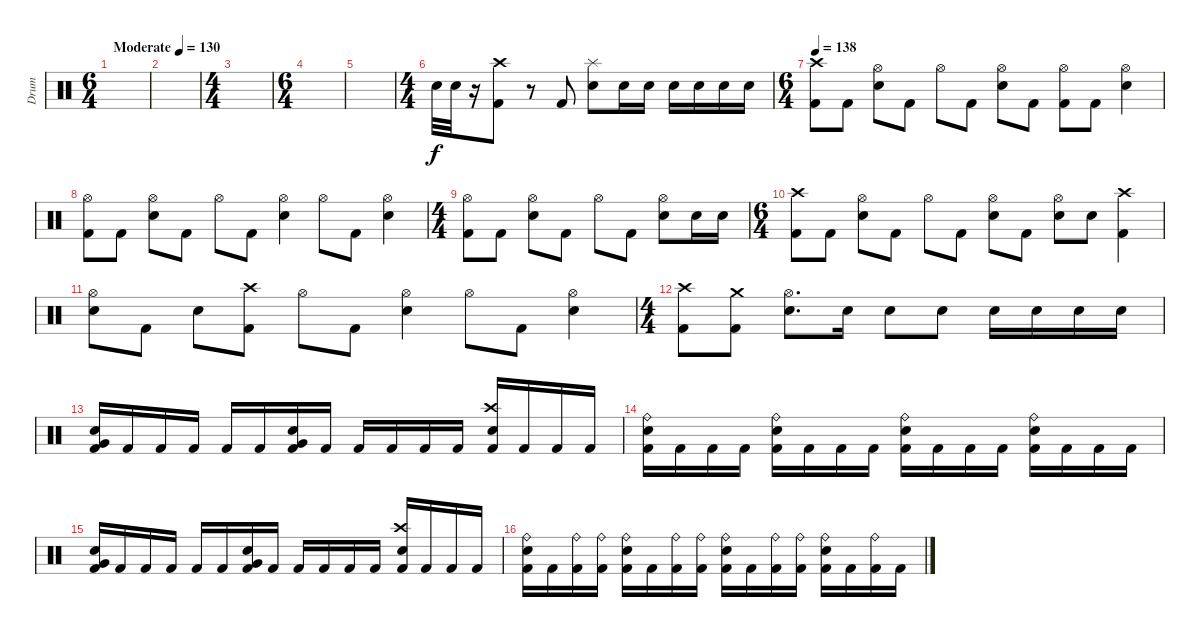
\track ("Drum" "Drum") {instrument percussion}
\staff {score}
\articulation defaults
\ts (6 4)
\tempo (130 "Moderate")
\clef neutral
\ks c
|
|
\ts (4 4)
|
\ts (6 4)
|
|
\ts (4 4)
"Electric Snare (hit)".32 "Electric Snare (hit)".32 r.16 ("Crash high (hit)" "Kick (hit) 2").8 r.8 "Kick (hit) 2".8 ("Electric Snare (hit)" "Splash (hit)").8 "Electric Snare (hit)".16 "Electric Snare (hit)".16 "Electric Snare (hit)".16 "Electric Snare (hit)".16 "Electric Snare (hit)".16 "Electric Snare (hit)".16 |
\ts (6 4)
\tempo 138
("Kick (hit) 2" "Crash high (hit)").8 "Kick (hit) 2".8 ("Electric Snare (hit)" "Hi-Hat (open)").8 "Kick (hit) 2".8 "Hi-Hat (open)".8 "Kick (hit) 2".8 ("Electric Snare (hit)" "Hi-Hat (open)").8 "Kick (hit) 2".8 ("Kick (hit) 2" "Hi-Hat (open)").8 "Kick (hit) 2".8 ("Hi-Hat (open)" "Electric Snare (hit)").4 |
("Kick (hit) 2" "Hi-Hat (open)").8 "Kick (hit) 2".8 ("Electric Snare (hit)" "Hi-Hat (open)").8 "Kick (hit) 2".8 "Hi-Hat (open)".8 "Kick (hit) 2".8 ("Hi-Hat (open)" "Electric Snare (hit)").4 "Hi-Hat (open)".8 "Kick (hit) 2".8 ("Hi-Hat (open)" "Electric Snare (hit)").4 |
\ts (4 4)
("Kick (hit) 2" "Hi-Hat (open)").8 "Kick (hit) 2".8 ("Electric Snare (hit)" "Hi-Hat (open)").8 "Kick (hit) 2".8 "Hi-Hat (open)".8 "Kick (hit) 2".8 ("Electric Snare (hit)" "Hi-Hat (open)").8 "Electric Snare (hit)".16 "Electric Snare (hit)".16 |
\ts (6 4)
("Crash high (hit)" "Kick (hit) 2").8 "Kick (hit) 2".8 ("Electric Snare (hit)" "Hi-Hat (open)").8 "Kick (hit) 2".8 "Hi-Hat (open)".8 "Kick (hit) 2".8 ("Electric Snare (hit)" "Hi-Hat (open)").8 "Kick (hit) 2".8 ("Electric Snare (hit)" "Hi-Hat (open)").8 "Electric Snare (hit)".8 ("Crash high (hit)" "Kick (hit) 2").4 |
("Electric Snare (hit)" "Hi-Hat (open)").8 "Kick (hit) 2".8 "Electric Snare (hit)".8 ("Crash high (hit)" "Kick (hit) 2").8 "Hi-Hat (open)".8 "Kick (hit) 2".8 ("Hi-Hat (open)" "Electric Snare (hit)").4 "Hi-Hat (open)".8 "Kick (hit) 2".8 ("Electric Snare (hit)" "Hi-Hat (open)").4 |
\ts (4 4)
("Crash high (hit)" "Kick (hit) 2").8 ("Crash medium (hit)" "Kick (hit) 2").8 ("Electric Snare (hit)" "Hi-Hat (open)").8{d} "Electric Snare (hit)".16 "Electric Snare (hit)".8 "Electric Snare (hit)".8 "Electric Snare (hit)".16 "Electric Snare (hit)".16 "Electric Snare (hit)".16 "Electric Snare (hit)".16 |
("Kick (hit) 2" "Electric Snare (hit)" "Very Low Tom (hit)").16 "Kick (hit) 2".16 "Kick (hit) 2".16 "Kick (hit) 2".16 "Kick (hit) 2".16 "Kick (hit) 2".16 ("Kick (hit) 2" "Electric Snare (hit)" "Very Low Tom (hit)").16 "Kick (hit) 2".16 "Kick (hit) 2".16 "Kick (hit) 2".16 "Kick (hit) 2".16 "Kick (hit) 2".16 ("Kick (hit) 2" "Electric Snare (hit)" "Crash high (hit)").16 "Kick (hit) 2".16 "Kick (hit) 2".16 "Kick (hit) 2".16 |
("Kick (hit) 2" "Electric Snare (hit)" "Ride (bell)").16 "Kick (hit) 2".16 "Kick (hit) 2".16 "Kick (hit) 2".16 ("Kick (hit) 2" "Electric Snare (hit)" "Ride (bell)").16 "Kick (hit) 2".16 "Kick (hit) 2".16 "Kick (hit) 2".16 ("Kick (hit) 2" "Electric Snare (hit)" "Ride (bell)").16 "Kick (hit) 2".16 "Kick (hit) 2".16 "Kick (hit) 2".16 ("Kick (hit) 2" "Electric Snare (hit)" "Ride (bell)").16 "Kick (hit) 2".16 "Kick (hit) 2".16 "Kick (hit) 2".16 |
("Very Low Tom (hit)" "Electric Snare (hit)" "Kick (hit) 2").16 "Kick (hit) 2".16 "Kick (hit) 2".16 "Kick (hit) 2".16 "Kick (hit) 2".16 "Kick (hit) 2".16 ("Kick (hit) 2" "Electric Snare (hit)" "Very Low Tom (hit)").16 "Kick (hit) 2".16 "Kick (hit) 2".16 "Kick (hit) 2".16 "Kick (hit) 2".16 "Kick (hit) 2".16 ("Kick (hit) 2" "Electric Snare (hit)" "Crash high (hit)").16 "Kick (hit) 2".16 "Kick (hit) 2".16 "Kick (hit) 2".16 |
("Kick (hit) 2" "Electric Snare (hit)" "Ride (bell)").16 "Kick (hit) 2".16 ("Kick (hit) 2" "Ride (bell)").16 ("Kick (hit) 2" "Ride (bell)").16 ("Kick (hit) 2" "Electric Snare (hit)" "Ride (bell)").16 "Kick (hit) 2".16 ("Kick (hit) 2" "Ride (bell)").16 ("Kick (hit) 2" "Ride (bell)").16 ("Kick (hit) 2" "Electric Snare (hit)" "Ride (bell)").16 "Kick (hit) 2".16 ("Kick (hit) 2" "Ride (bell)").16 ("Kick (hit) 2" "Ride (bell)").16 ("Kick (hit) 2" "Electric Snare (hit)" "Ride (bell)").16 "Kick (hit) 2".16 ("Kick (hit) 2" "Ride (bell)").16 "Kick (hit) 2".16
